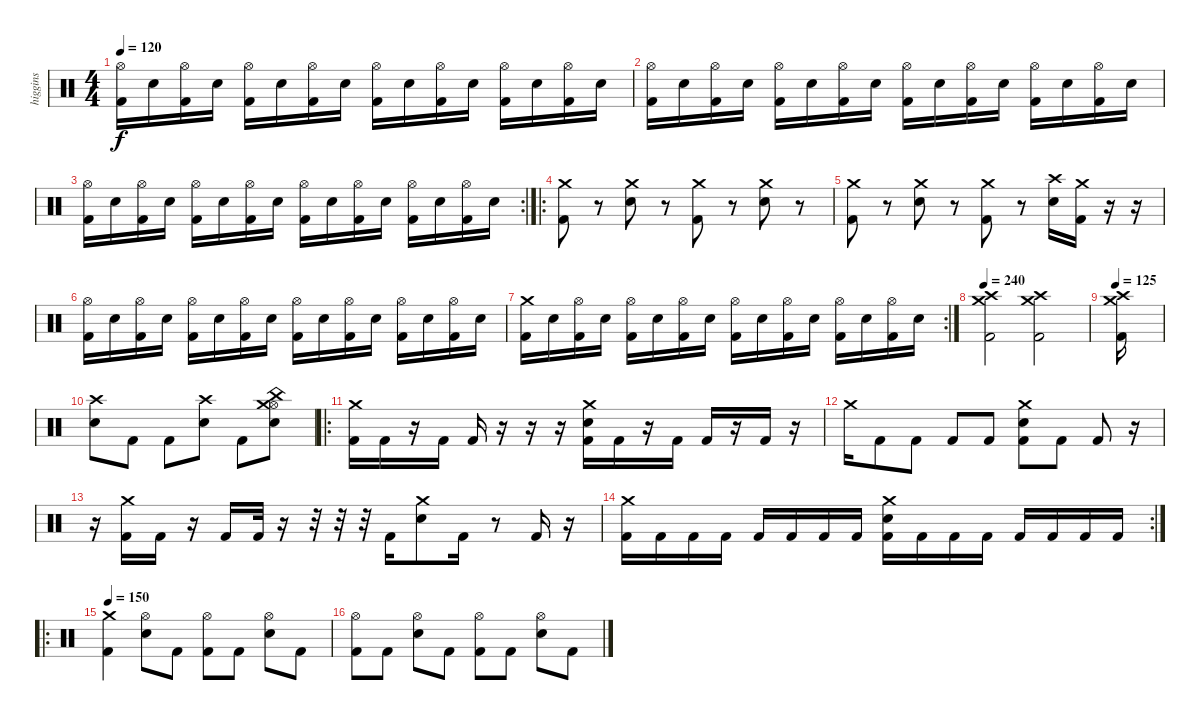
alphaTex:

\track ("higgins" "higgins") {instrument percussion}
\staff {score}
\articulation defaults
\ts (4 4)
\tempo 120
\clef neutral
\ks c
("Hi-Hat (open)" "Kick (hit) 2").16{dy f} "Snare (hit) 2".16 ("Hi-Hat (open)" "Kick (hit) 2").16 "Snare (hit) 2".16 ("Hi-Hat (open)" "Kick (hit) 2").16 "Snare (hit) 2".16 ("Hi-Hat (open)" "Kick (hit) 2").16 "Snare (hit) 2".16 ("Hi-Hat (open)" "Kick (hit) 2").16 "Snare (hit) 2".16 ("Hi-Hat (open)" "Kick (hit) 2").16 "Snare (hit) 2".16 ("Hi-Hat (open)" "Kick (hit) 2").16 "Snare (hit) 2".16 ("Hi-Hat (open)" "Kick (hit) 2").16 "Snare (hit) 2".16 |
("Hi-Hat (open)" "Kick (hit) 2").16 "Snare (hit) 2".16 ("Hi-Hat (open)" "Kick (hit) 2").16 "Snare (hit) 2".16 ("Hi-Hat (open)" "Kick (hit) 2").16 "Snare (hit) 2".16 ("Hi-Hat (open)" "Kick (hit) 2").16 "Snare (hit) 2".16 ("Hi-Hat (open)" "Kick (hit) 2").16 "Snare (hit) 2".16 ("Hi-Hat (open)" "Kick (hit) 2").16 "Snare (hit) 2".16 ("Hi-Hat (open)" "Kick (hit) 2").16 "Snare (hit) 2".16 ("Hi-Hat (open)" "Kick (hit) 2").16 "Snare (hit) 2".16 |
\rc 2
("Hi-Hat (open)" "Kick (hit) 2").16 "Snare (hit) 2".16 ("Hi-Hat (open)" "Kick (hit) 2").16 "Snare (hit) 2".16 ("Hi-Hat (open)" "Kick (hit) 2").16 "Snare (hit) 2".16 ("Hi-Hat (open)" "Kick (hit) 2").16 "Snare (hit) 2".16 ("Hi-Hat (open)" "Kick (hit) 2").16 "Snare (hit) 2".16 ("Hi-Hat (open)" "Kick (hit) 2").16 "Snare (hit) 2".16 ("Hi-Hat (open)" "Kick (hit) 2").16 "Snare (hit) 2".16 ("Hi-Hat (open)" "Kick (hit) 2").16 "Snare (hit) 2".16 |
\ro
("Crash medium (hit)" "Kick (hit) 2").8 r.8 ("Crash medium (hit)" "Snare (hit) 2").8 r.8 ("Crash medium (hit)" "Kick (hit) 2").8 r.8 ("Crash medium (hit)" "Snare (hit) 2").8 r.8 |
("Crash medium (hit)" "Kick (hit) 2").8 r.8 ("Crash medium (hit)" "Snare (hit) 2").8 r.8 ("Crash medium (hit)" "Kick (hit) 2").8 r.8 ("Crash high (hit)" "Snare (hit) 2").16 ("Crash medium (hit)" "Kick (hit) 2").16 r.16 r.16 |
("Hi-Hat (open)" "Kick (hit) 2").16 "Snare (hit) 2".16 ("Hi-Hat (open)" "Kick (hit) 2").16 "Snare (hit) 2".16 ("Hi-Hat (open)" "Kick (hit) 2").16 "Snare (hit) 2".16 ("Hi-Hat (open)" "Kick (hit) 2").16 "Snare (hit) 2".16 ("Hi-Hat (open)" "Kick (hit) 2").16 "Snare (hit) 2".16 ("Hi-Hat (open)" "Kick (hit) 2").16 "Snare (hit) 2".16 ("Hi-Hat (open)" "Kick (hit) 2").16 "Snare (hit) 2".16 ("Hi-Hat (open)" "Kick (hit) 2").16 "Snare (hit) 2".16 |
\rc 2
("Crash medium (hit)" "Kick (hit) 2").16 "Snare (hit) 2".16 ("Hi-Hat (open)" "Kick (hit) 2").16 "Snare (hit) 2".16 ("Hi-Hat (open)" "Kick (hit) 2").16 "Snare (hit) 2".16 ("Hi-Hat (open)" "Kick (hit) 2").16 "Snare (hit) 2".16 ("Hi-Hat (open)" "Kick (hit) 2").16 "Snare (hit) 2".16 ("Hi-Hat (open)" "Kick (hit) 2").16 "Snare (hit) 2".16 ("Hi-Hat (open)" "Kick (hit) 2").16 "Snare (hit) 2".16 ("Hi-Hat (open)" "Kick (hit) 2").16 "Snare (hit) 2".16 |
\tempo 240
("Crash medium (hit)" "Crash high (hit)" "Kick (hit) 2").2 ("Crash high (hit)" "Crash medium (hit)" "Kick (hit) 2").2 |
\tempo 125
("Crash high (hit)" "Crash medium (hit)" "Kick (hit) 2").16 |
("Crash high (hit)" "Snare (hit) 2").8 "Kick (hit) 2".8 "Kick (hit) 2".8 ("Crash high (hit)" "Snare (hit) 2").8 "Kick (hit) 2".8 ("Hi-Hat (open)" "China (hit)" "Crash medium (hit)" "Snare (hit) 2").8 |
\ro
("Crash medium (hit)" "Kick (hit) 2").16 "Kick (hit) 2".16 r.16 "Kick (hit) 2".16 "Kick (hit) 2".16 r.16 r.16 r.16 ("Crash medium (hit)" "Snare (hit) 2" "Kick (hit) 2").16 "Kick (hit) 2".16 r.16 "Kick (hit) 2".16 "Kick (hit) 2".16 r.16 "Kick (hit) 2".16 r.16 |
"Crash medium (hit)".16 "Kick (hit) 2".8 "Kick (hit) 2".8 "Kick (hit) 2".8 "Kick (hit) 2".8 ("Crash medium (hit)" "Snare (hit) 2" "Kick (hit) 2").8 "Kick (hit) 2".8 "Kick (hit) 2".8 r.16 |
r.16 ("Crash medium (hit)" "Kick (hit) 2").16 "Kick (hit) 2".16 r.16 "Kick (hit) 2".16 "Kick (hit) 2".32 r.16 r.32 r.32 r.32 "Kick (hit) 2".16 ("Crash medium (hit)" "Snare (hit) 2").8 "Kick (hit) 2".16 r.8 "Kick (hit) 2".16 r.16 |
\rc 2
("Crash medium (hit)" "Kick (hit) 2").16 "Kick (hit) 2".16 "Kick (hit) 2".16 "Kick (hit) 2".16 "Kick (hit) 2".16 "Kick (hit) 2".16 "Kick (hit) 2".16 "Kick (hit) 2".16 ("Crash medium (hit)" "Snare (hit) 2" "Kick (hit) 2").16 "Kick (hit) 2".16 "Kick (hit) 2".16 "Kick (hit) 2".16 "Kick (hit) 2".16 "Kick (hit) 2".16 "Kick (hit) 2".16 "Kick (hit) 2".16 |
\ro
\tempo 150
("Crash medium (hit)" "Kick (hit) 2").4 ("Hi-Hat (open)" "Snare (hit) 2").8 "Kick (hit) 2".8 ("Hi-Hat (open)" "Kick (hit) 2").8 "Kick (hit) 2".8 ("Hi-Hat (open)" "Snare (hit) 2").8 "Kick (hit) 2".8 |
("Hi-Hat (open)" "Kick (hit) 2").8 "Kick (hit) 2".8 ("Hi-Hat (open)" "Snare (hit) 2").8 "Kick (hit) 2".8 ("Hi-Hat (open)" "Kick (hit) 2").8 "Kick (hit) 2".8 ("Hi-Hat (open)" "Snare (hit) 2").8 "Kick (hit) 2".8
